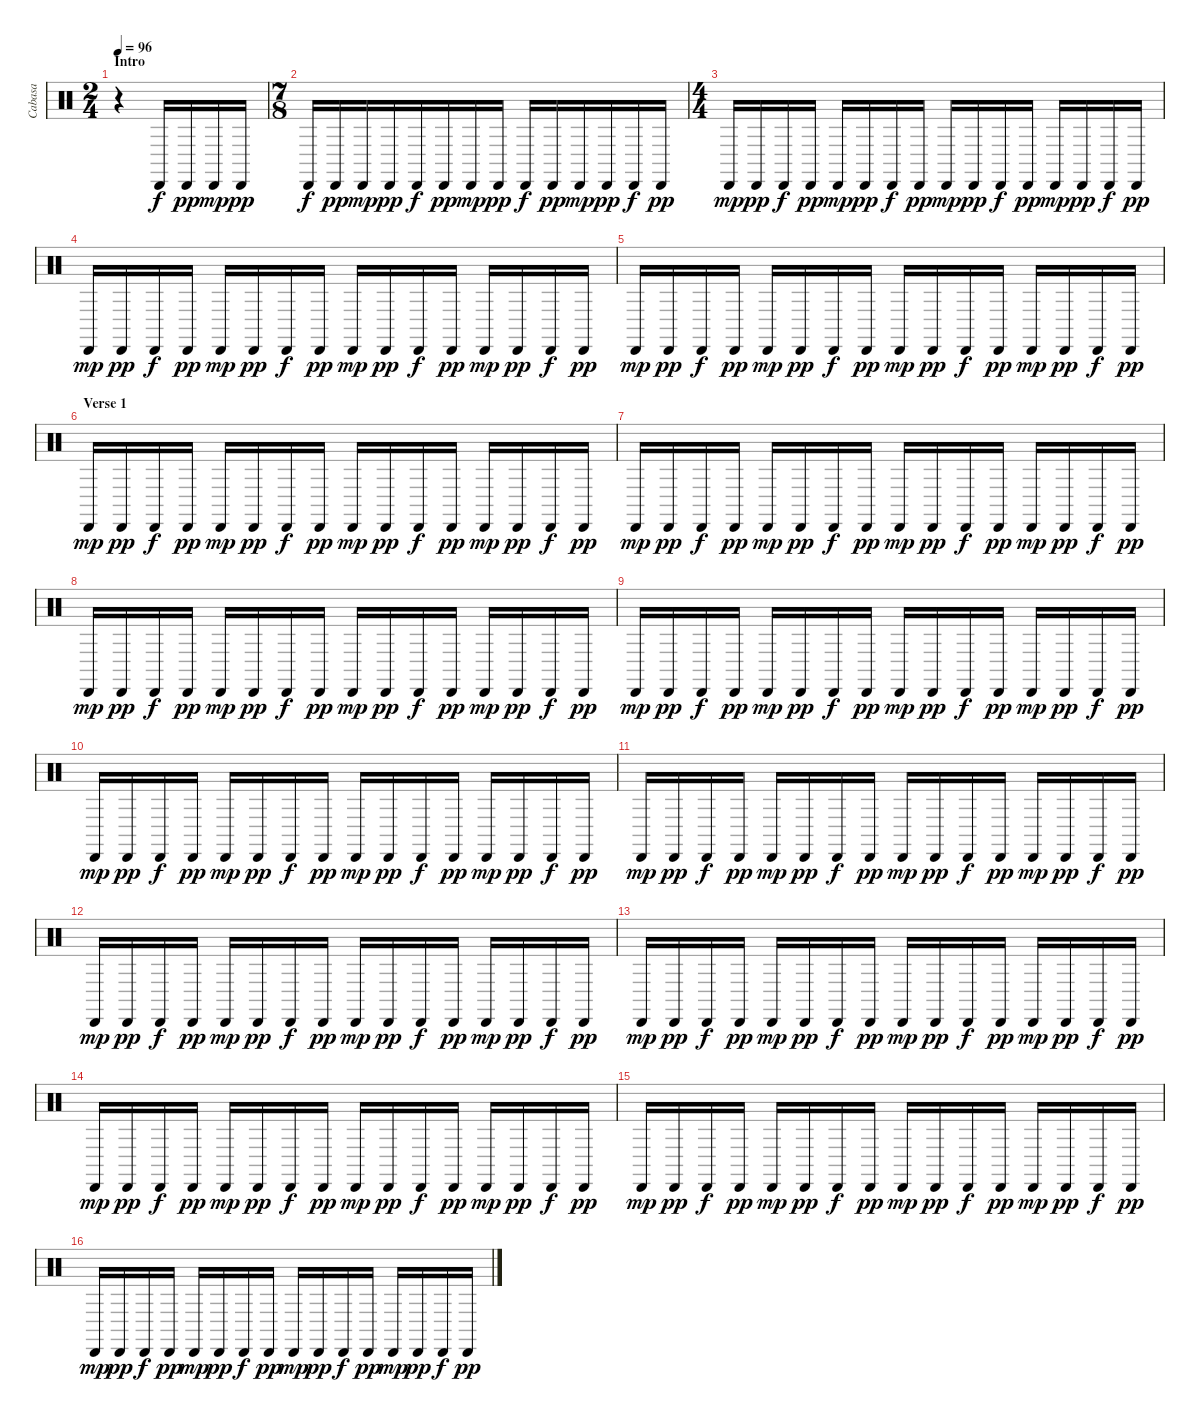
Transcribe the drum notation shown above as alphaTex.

\track ("Cabasa" "Cabasa") {instrument percussion}
\staff {score}
\articulation defaults
\ts (2 4)
\section ("" "Intro")
\tempo 96
\clef neutral
\ks c
r.4{dy f} "Cabasa (hit)".16 "Cabasa (hit)".16{dy pp} "Cabasa (hit)".16{dy mp} "Cabasa (hit)".16{dy pp} |
\ts (7 8)
"Cabasa (hit)".16{dy f} "Cabasa (hit)".16{dy pp} "Cabasa (hit)".16{dy mp} "Cabasa (hit)".16{dy pp} "Cabasa (hit)".16{dy f} "Cabasa (hit)".16{dy pp} "Cabasa (hit)".16{dy mp} "Cabasa (hit)".16{dy pp} "Cabasa (hit)".16{dy f} "Cabasa (hit)".16{dy pp} "Cabasa (hit)".16{dy mp} "Cabasa (hit)".16{dy pp} "Cabasa (hit)".16{dy f} "Cabasa (hit)".16{dy pp} |
\ts (4 4)
"Cabasa (hit)".16{dy mp} "Cabasa (hit)".16{dy pp} "Cabasa (hit)".16{dy f} "Cabasa (hit)".16{dy pp} "Cabasa (hit)".16{dy mp} "Cabasa (hit)".16{dy pp} "Cabasa (hit)".16{dy f} "Cabasa (hit)".16{dy pp} "Cabasa (hit)".16{dy mp} "Cabasa (hit)".16{dy pp} "Cabasa (hit)".16{dy f} "Cabasa (hit)".16{dy pp} "Cabasa (hit)".16{dy mp} "Cabasa (hit)".16{dy pp} "Cabasa (hit)".16{dy f} "Cabasa (hit)".16{dy pp} |
"Cabasa (hit)".16{dy mp} "Cabasa (hit)".16{dy pp} "Cabasa (hit)".16{dy f} "Cabasa (hit)".16{dy pp} "Cabasa (hit)".16{dy mp} "Cabasa (hit)".16{dy pp} "Cabasa (hit)".16{dy f} "Cabasa (hit)".16{dy pp} "Cabasa (hit)".16{dy mp} "Cabasa (hit)".16{dy pp} "Cabasa (hit)".16{dy f} "Cabasa (hit)".16{dy pp} "Cabasa (hit)".16{dy mp} "Cabasa (hit)".16{dy pp} "Cabasa (hit)".16{dy f} "Cabasa (hit)".16{dy pp} |
"Cabasa (hit)".16{dy mp} "Cabasa (hit)".16{dy pp} "Cabasa (hit)".16{dy f} "Cabasa (hit)".16{dy pp} "Cabasa (hit)".16{dy mp} "Cabasa (hit)".16{dy pp} "Cabasa (hit)".16{dy f} "Cabasa (hit)".16{dy pp} "Cabasa (hit)".16{dy mp} "Cabasa (hit)".16{dy pp} "Cabasa (hit)".16{dy f} "Cabasa (hit)".16{dy pp} "Cabasa (hit)".16{dy mp} "Cabasa (hit)".16{dy pp} "Cabasa (hit)".16{dy f} "Cabasa (hit)".16{dy pp} |
\section ("" "Verse 1")
"Cabasa (hit)".16{dy mp} "Cabasa (hit)".16{dy pp} "Cabasa (hit)".16{dy f} "Cabasa (hit)".16{dy pp} "Cabasa (hit)".16{dy mp} "Cabasa (hit)".16{dy pp} "Cabasa (hit)".16{dy f} "Cabasa (hit)".16{dy pp} "Cabasa (hit)".16{dy mp} "Cabasa (hit)".16{dy pp} "Cabasa (hit)".16{dy f} "Cabasa (hit)".16{dy pp} "Cabasa (hit)".16{dy mp} "Cabasa (hit)".16{dy pp} "Cabasa (hit)".16{dy f} "Cabasa (hit)".16{dy pp} |
"Cabasa (hit)".16{dy mp} "Cabasa (hit)".16{dy pp} "Cabasa (hit)".16{dy f} "Cabasa (hit)".16{dy pp} "Cabasa (hit)".16{dy mp} "Cabasa (hit)".16{dy pp} "Cabasa (hit)".16{dy f} "Cabasa (hit)".16{dy pp} "Cabasa (hit)".16{dy mp} "Cabasa (hit)".16{dy pp} "Cabasa (hit)".16{dy f} "Cabasa (hit)".16{dy pp} "Cabasa (hit)".16{dy mp} "Cabasa (hit)".16{dy pp} "Cabasa (hit)".16{dy f} "Cabasa (hit)".16{dy pp} |
"Cabasa (hit)".16{dy mp} "Cabasa (hit)".16{dy pp} "Cabasa (hit)".16{dy f} "Cabasa (hit)".16{dy pp} "Cabasa (hit)".16{dy mp} "Cabasa (hit)".16{dy pp} "Cabasa (hit)".16{dy f} "Cabasa (hit)".16{dy pp} "Cabasa (hit)".16{dy mp} "Cabasa (hit)".16{dy pp} "Cabasa (hit)".16{dy f} "Cabasa (hit)".16{dy pp} "Cabasa (hit)".16{dy mp} "Cabasa (hit)".16{dy pp} "Cabasa (hit)".16{dy f} "Cabasa (hit)".16{dy pp} |
"Cabasa (hit)".16{dy mp} "Cabasa (hit)".16{dy pp} "Cabasa (hit)".16{dy f} "Cabasa (hit)".16{dy pp} "Cabasa (hit)".16{dy mp} "Cabasa (hit)".16{dy pp} "Cabasa (hit)".16{dy f} "Cabasa (hit)".16{dy pp} "Cabasa (hit)".16{dy mp} "Cabasa (hit)".16{dy pp} "Cabasa (hit)".16{dy f} "Cabasa (hit)".16{dy pp} "Cabasa (hit)".16{dy mp} "Cabasa (hit)".16{dy pp} "Cabasa (hit)".16{dy f} "Cabasa (hit)".16{dy pp} |
"Cabasa (hit)".16{dy mp} "Cabasa (hit)".16{dy pp} "Cabasa (hit)".16{dy f} "Cabasa (hit)".16{dy pp} "Cabasa (hit)".16{dy mp} "Cabasa (hit)".16{dy pp} "Cabasa (hit)".16{dy f} "Cabasa (hit)".16{dy pp} "Cabasa (hit)".16{dy mp} "Cabasa (hit)".16{dy pp} "Cabasa (hit)".16{dy f} "Cabasa (hit)".16{dy pp} "Cabasa (hit)".16{dy mp} "Cabasa (hit)".16{dy pp} "Cabasa (hit)".16{dy f} "Cabasa (hit)".16{dy pp} |
"Cabasa (hit)".16{dy mp} "Cabasa (hit)".16{dy pp} "Cabasa (hit)".16{dy f} "Cabasa (hit)".16{dy pp} "Cabasa (hit)".16{dy mp} "Cabasa (hit)".16{dy pp} "Cabasa (hit)".16{dy f} "Cabasa (hit)".16{dy pp} "Cabasa (hit)".16{dy mp} "Cabasa (hit)".16{dy pp} "Cabasa (hit)".16{dy f} "Cabasa (hit)".16{dy pp} "Cabasa (hit)".16{dy mp} "Cabasa (hit)".16{dy pp} "Cabasa (hit)".16{dy f} "Cabasa (hit)".16{dy pp} |
"Cabasa (hit)".16{dy mp} "Cabasa (hit)".16{dy pp} "Cabasa (hit)".16{dy f} "Cabasa (hit)".16{dy pp} "Cabasa (hit)".16{dy mp} "Cabasa (hit)".16{dy pp} "Cabasa (hit)".16{dy f} "Cabasa (hit)".16{dy pp} "Cabasa (hit)".16{dy mp} "Cabasa (hit)".16{dy pp} "Cabasa (hit)".16{dy f} "Cabasa (hit)".16{dy pp} "Cabasa (hit)".16{dy mp} "Cabasa (hit)".16{dy pp} "Cabasa (hit)".16{dy f} "Cabasa (hit)".16{dy pp} |
"Cabasa (hit)".16{dy mp} "Cabasa (hit)".16{dy pp} "Cabasa (hit)".16{dy f} "Cabasa (hit)".16{dy pp} "Cabasa (hit)".16{dy mp} "Cabasa (hit)".16{dy pp} "Cabasa (hit)".16{dy f} "Cabasa (hit)".16{dy pp} "Cabasa (hit)".16{dy mp} "Cabasa (hit)".16{dy pp} "Cabasa (hit)".16{dy f} "Cabasa (hit)".16{dy pp} "Cabasa (hit)".16{dy mp} "Cabasa (hit)".16{dy pp} "Cabasa (hit)".16{dy f} "Cabasa (hit)".16{dy pp} |
"Cabasa (hit)".16{dy mp} "Cabasa (hit)".16{dy pp} "Cabasa (hit)".16{dy f} "Cabasa (hit)".16{dy pp} "Cabasa (hit)".16{dy mp} "Cabasa (hit)".16{dy pp} "Cabasa (hit)".16{dy f} "Cabasa (hit)".16{dy pp} "Cabasa (hit)".16{dy mp} "Cabasa (hit)".16{dy pp} "Cabasa (hit)".16{dy f} "Cabasa (hit)".16{dy pp} "Cabasa (hit)".16{dy mp} "Cabasa (hit)".16{dy pp} "Cabasa (hit)".16{dy f} "Cabasa (hit)".16{dy pp} |
"Cabasa (hit)".16{dy mp} "Cabasa (hit)".16{dy pp} "Cabasa (hit)".16{dy f} "Cabasa (hit)".16{dy pp} "Cabasa (hit)".16{dy mp} "Cabasa (hit)".16{dy pp} "Cabasa (hit)".16{dy f} "Cabasa (hit)".16{dy pp} "Cabasa (hit)".16{dy mp} "Cabasa (hit)".16{dy pp} "Cabasa (hit)".16{dy f} "Cabasa (hit)".16{dy pp} "Cabasa (hit)".16{dy mp} "Cabasa (hit)".16{dy pp} "Cabasa (hit)".16{dy f} "Cabasa (hit)".16{dy pp} |
"Cabasa (hit)".16{dy mp} "Cabasa (hit)".16{dy pp} "Cabasa (hit)".16{dy f} "Cabasa (hit)".16{dy pp} "Cabasa (hit)".16{dy mp} "Cabasa (hit)".16{dy pp} "Cabasa (hit)".16{dy f} "Cabasa (hit)".16{dy pp} "Cabasa (hit)".16{dy mp} "Cabasa (hit)".16{dy pp} "Cabasa (hit)".16{dy f} "Cabasa (hit)".16{dy pp} "Cabasa (hit)".16{dy mp} "Cabasa (hit)".16{dy pp} "Cabasa (hit)".16{dy f} "Cabasa (hit)".16{dy pp}
